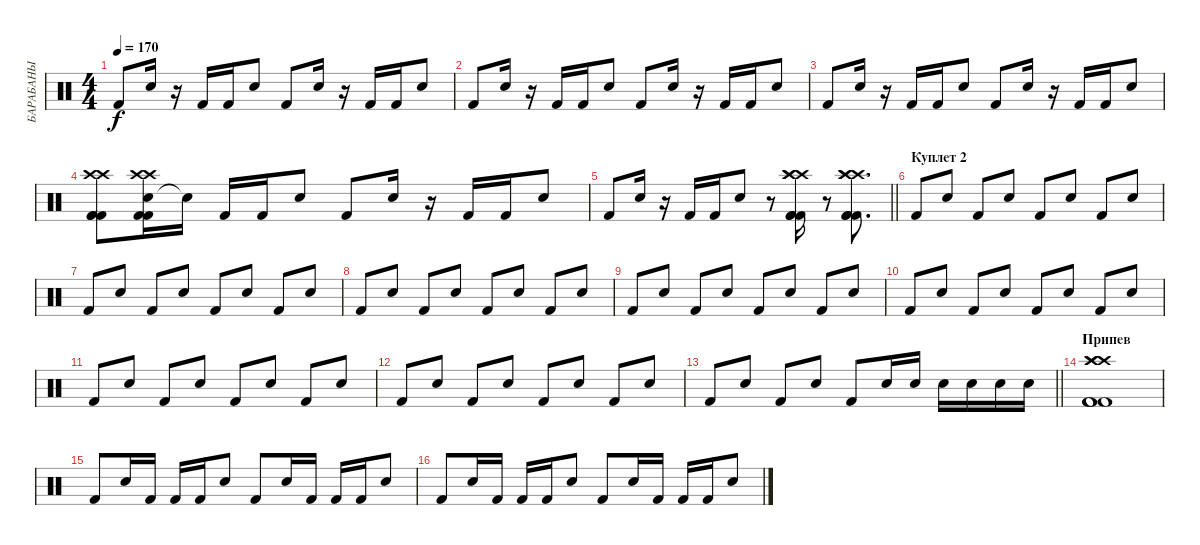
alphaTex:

\track ("БАРАБАНЫ" "БАРАБАНЫ") {instrument percussion}
\staff {score}
\articulation defaults
\ts (4 4)
\tempo 170
\clef neutral
\ks c "Kick (hit) 2".8{dy f} "Electric Snare (hit)".16
r.16 "Kick (hit) 2".16 "Kick (hit) 2".16 "Electric Snare (hit)".8 "Kick (hit) 2".8 "Electric Snare (hit)".16 r.16 "Kick (hit) 2".16 "Kick (hit) 2".16 "Electric Snare (hit)".8 |
"Kick (hit) 2".8 "Electric Snare (hit)".16 r.16 "Kick (hit) 2".16 "Kick (hit) 2".16 "Electric Snare (hit)".8 "Kick (hit) 2".8 "Electric Snare (hit)".16 r.16 "Kick (hit) 2".16 "Kick (hit) 2".16 "Electric Snare (hit)".8 |
"Kick (hit) 2".8 "Electric Snare (hit)".16 r.16 "Kick (hit) 2".16 "Kick (hit) 2".16 "Electric Snare (hit)".8 "Kick (hit) 2".8 "Electric Snare (hit)".16 r.16 "Kick (hit) 2".16 "Kick (hit) 2".16 "Electric Snare (hit)".8 |
("Kick (hit) 2" "Crash high (hit)" "Kick (hit) 2" "Kick (hit) 2" "Crash high (hit)").8 ("Electric Snare (hit)" "Crash high (hit)" "Kick (hit) 2" "Kick (hit) 2" "Crash high (hit)").16 "Snare (hit)"{t}.16 "Kick (hit) 2".16 "Kick (hit) 2".16 "Electric Snare (hit)".8 "Kick (hit) 2".8 "Electric Snare (hit)".16 r.16 "Kick (hit) 2".16 "Kick (hit) 2".16 "Electric Snare (hit)".8 |
\barLineRight lightlight "Kick (hit) 2".8 "Electric Snare (hit)".16
r.16 "Kick (hit) 2".16 "Kick (hit) 2".16 "Electric Snare (hit)".8 r.8 ("Kick (hit) 2" "Crash high (hit)" "Kick (hit) 2" "Crash high (hit)" "Kick (hit) 2" "Crash high (hit)").16 r.8 ("Kick (hit) 2" "Crash high (hit)" "Kick (hit) 2" "Crash high (hit)" "Kick (hit) 2" "Crash high (hit)").8{d} |
\section ("" "Куплет 2")
"Kick (hit) 2".8 "Electric Snare (hit)".8 "Kick (hit) 2".8 "Electric Snare (hit)".8 "Kick (hit) 2".8 "Electric Snare (hit)".8 "Kick (hit) 2".8 "Electric Snare (hit)".8 |
"Kick (hit) 2".8 "Electric Snare (hit)".8 "Kick (hit) 2".8 "Electric Snare (hit)".8 "Kick (hit) 2".8 "Electric Snare (hit)".8 "Kick (hit) 2".8 "Electric Snare (hit)".8 |
"Kick (hit) 2".8 "Electric Snare (hit)".8 "Kick (hit) 2".8 "Electric Snare (hit)".8 "Kick (hit) 2".8 "Electric Snare (hit)".8 "Kick (hit) 2".8 "Electric Snare (hit)".8 |
"Kick (hit) 2".8 "Electric Snare (hit)".8 "Kick (hit) 2".8 "Electric Snare (hit)".8 "Kick (hit) 2".8 "Electric Snare (hit)".8 "Kick (hit) 2".8 "Electric Snare (hit)".8 |
"Kick (hit) 2".8 "Electric Snare (hit)".8 "Kick (hit) 2".8 "Electric Snare (hit)".8 "Kick (hit) 2".8 "Electric Snare (hit)".8 "Kick (hit) 2".8 "Electric Snare (hit)".8 |
"Kick (hit) 2".8 "Electric Snare (hit)".8 "Kick (hit) 2".8 "Electric Snare (hit)".8 "Kick (hit) 2".8 "Electric Snare (hit)".8 "Kick (hit) 2".8 "Electric Snare (hit)".8 |
"Kick (hit) 2".8 "Electric Snare (hit)".8 "Kick (hit) 2".8 "Electric Snare (hit)".8 "Kick (hit) 2".8 "Electric Snare (hit)".8 "Kick (hit) 2".8 "Electric Snare (hit)".8 |
\barLineRight lightlight "Kick (hit) 2".8 "Electric Snare (hit)".8 "Kick (hit) 2".8 "Electric Snare (hit)".8 "Kick (hit) 2".8 "Electric Snare (hit)".16 "Electric Snare (hit)".16 "Electric Snare (hit)".16 "Electric Snare (hit)".16 "Electric Snare (hit)".16 "Electric Snare (hit)".16
|
\section ("" "Припев")
("Kick (hit) 2" "Crash high (hit)" "Kick (hit) 2" "Crash high (hit)" "Kick (hit) 2" "Crash high (hit)").1 |
"Kick (hit) 2".8 "Electric Snare (hit)".16 "Kick (hit) 2".16 "Kick (hit) 2".16 "Kick (hit) 2".16 "Electric Snare (hit)".8 "Kick (hit) 2".8 "Electric Snare (hit)".16 "Kick (hit) 2".16 "Kick (hit) 2".16 "Kick (hit) 2".16 "Electric Snare (hit)".8 |
"Kick (hit) 2".8 "Electric Snare (hit)".16 "Kick (hit) 2".16 "Kick (hit) 2".16 "Kick (hit) 2".16 "Electric Snare (hit)".8 "Kick (hit) 2".8 "Electric Snare (hit)".16 "Kick (hit) 2".16 "Kick (hit) 2".16 "Kick (hit) 2".16 "Electric Snare (hit)".8
